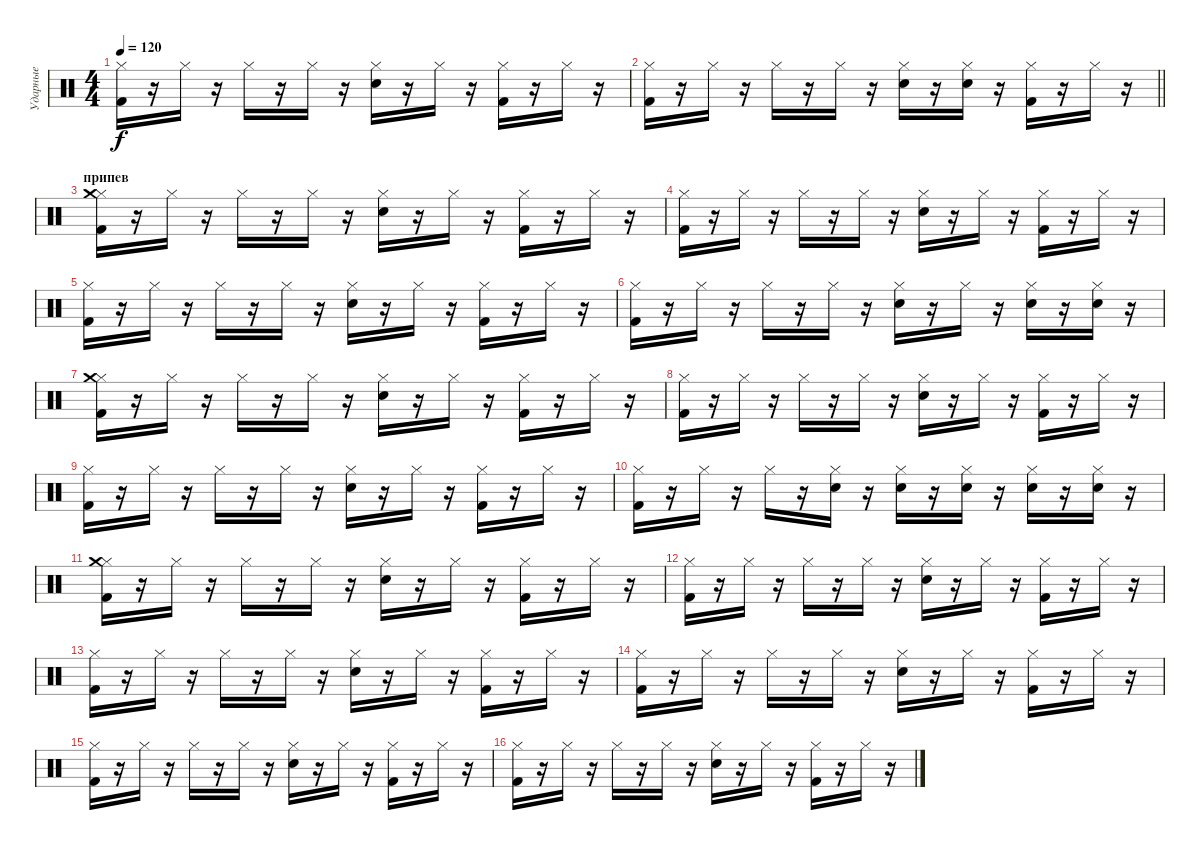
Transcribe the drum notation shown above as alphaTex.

\track ("Ударные" "Ударные") {instrument percussion}
\staff {score}
\articulation defaults
\ts (4 4)
\tempo 120
\clef neutral
\ks c
("Hi-Hat (closed)" "Kick (hit) 2").16{dy f} r.16 "Hi-Hat (closed)".16 r.16 "Hi-Hat (closed)".16 r.16 "Hi-Hat (closed)".16 r.16 ("Hi-Hat (closed)" "Snare (hit) 2").16 r.16 "Hi-Hat (closed)".16 r.16 ("Hi-Hat (closed)" "Kick (hit) 2").16 r.16 "Hi-Hat (closed)".16 r.16 |
\barLineRight lightlight
("Hi-Hat (closed)" "Kick (hit) 2").16 r.16 "Hi-Hat (closed)".16 r.16 "Hi-Hat (closed)".16 r.16 "Hi-Hat (closed)".16 r.16 ("Hi-Hat (closed)" "Snare (hit) 2").16 r.16 ("Hi-Hat (closed)" "Snare (hit) 2").16 r.16 ("Hi-Hat (closed)" "Kick (hit) 2").16 r.16 "Hi-Hat (closed)".16 r.16 |
\section ("" "припев")
("Hi-Hat (closed)" "Kick (hit) 2" "Crash medium (hit)").16 r.16 "Hi-Hat (closed)".16 r.16 "Hi-Hat (closed)".16 r.16 "Hi-Hat (closed)".16 r.16 ("Hi-Hat (closed)" "Snare (hit) 2").16 r.16 "Hi-Hat (closed)".16 r.16 ("Hi-Hat (closed)" "Kick (hit) 2").16 r.16 "Hi-Hat (closed)".16 r.16 |
("Hi-Hat (closed)" "Kick (hit) 2").16 r.16 "Hi-Hat (closed)".16 r.16 "Hi-Hat (closed)".16 r.16 "Hi-Hat (closed)".16 r.16 ("Hi-Hat (closed)" "Snare (hit) 2").16 r.16 "Hi-Hat (closed)".16 r.16 ("Hi-Hat (closed)" "Kick (hit) 2").16 r.16 "Hi-Hat (closed)".16 r.16 |
("Hi-Hat (closed)" "Kick (hit) 2").16 r.16 "Hi-Hat (closed)".16 r.16 "Hi-Hat (closed)".16 r.16 "Hi-Hat (closed)".16 r.16 ("Hi-Hat (closed)" "Snare (hit) 2").16 r.16 "Hi-Hat (closed)".16 r.16 ("Hi-Hat (closed)" "Kick (hit) 2").16 r.16 "Hi-Hat (closed)".16 r.16 |
("Hi-Hat (closed)" "Kick (hit) 2").16 r.16 "Hi-Hat (closed)".16 r.16 "Hi-Hat (closed)".16 r.16 "Hi-Hat (closed)".16 r.16 ("Hi-Hat (closed)" "Snare (hit) 2").16 r.16 "Hi-Hat (closed)".16 r.16 ("Hi-Hat (closed)" "Snare (hit) 2").16 r.16 ("Hi-Hat (closed)" "Snare (hit) 2").16 r.16 |
("Hi-Hat (closed)" "Kick (hit) 2" "Crash medium (hit)").16 r.16 "Hi-Hat (closed)".16 r.16 "Hi-Hat (closed)".16 r.16 "Hi-Hat (closed)".16 r.16 ("Hi-Hat (closed)" "Snare (hit) 2").16 r.16 "Hi-Hat (closed)".16 r.16 ("Hi-Hat (closed)" "Kick (hit) 2").16 r.16 "Hi-Hat (closed)".16 r.16 |
("Hi-Hat (closed)" "Kick (hit) 2").16 r.16 "Hi-Hat (closed)".16 r.16 "Hi-Hat (closed)".16 r.16 "Hi-Hat (closed)".16 r.16 ("Hi-Hat (closed)" "Snare (hit) 2").16 r.16 "Hi-Hat (closed)".16 r.16 ("Hi-Hat (closed)" "Kick (hit) 2").16 r.16 "Hi-Hat (closed)".16 r.16 |
("Hi-Hat (closed)" "Kick (hit) 2").16 r.16 "Hi-Hat (closed)".16 r.16 "Hi-Hat (closed)".16 r.16 "Hi-Hat (closed)".16 r.16 ("Hi-Hat (closed)" "Snare (hit) 2").16 r.16 "Hi-Hat (closed)".16 r.16 ("Hi-Hat (closed)" "Kick (hit) 2").16 r.16 "Hi-Hat (closed)".16 r.16 |
("Hi-Hat (closed)" "Kick (hit) 2").16 r.16 "Hi-Hat (closed)".16 r.16 "Hi-Hat (closed)".16 r.16 ("Hi-Hat (closed)" "Snare (hit) 2").16 r.16 ("Hi-Hat (closed)" "Snare (hit) 2").16 r.16 ("Hi-Hat (closed)" "Snare (hit) 2").16 r.16 ("Hi-Hat (closed)" "Snare (hit) 2").16 r.16 ("Hi-Hat (closed)" "Snare (hit) 2").16 r.16 |
("Hi-Hat (closed)" "Kick (hit) 2" "Crash medium (hit)").16 r.16 "Hi-Hat (closed)".16 r.16 "Hi-Hat (closed)".16 r.16 "Hi-Hat (closed)".16 r.16 ("Hi-Hat (closed)" "Snare (hit) 2").16 r.16 "Hi-Hat (closed)".16 r.16 ("Hi-Hat (closed)" "Kick (hit) 2").16 r.16 "Hi-Hat (closed)".16 r.16 |
("Hi-Hat (closed)" "Kick (hit) 2").16 r.16 "Hi-Hat (closed)".16 r.16 "Hi-Hat (closed)".16 r.16 "Hi-Hat (closed)".16 r.16 ("Hi-Hat (closed)" "Snare (hit) 2").16 r.16 "Hi-Hat (closed)".16 r.16 ("Hi-Hat (closed)" "Kick (hit) 2").16 r.16 "Hi-Hat (closed)".16 r.16 |
("Hi-Hat (closed)" "Kick (hit) 2").16 r.16 "Hi-Hat (closed)".16 r.16 "Hi-Hat (closed)".16 r.16 "Hi-Hat (closed)".16 r.16 ("Hi-Hat (closed)" "Snare (hit) 2").16 r.16 "Hi-Hat (closed)".16 r.16 ("Hi-Hat (closed)" "Kick (hit) 2").16 r.16 "Hi-Hat (closed)".16 r.16 |
("Hi-Hat (closed)" "Kick (hit) 2").16 r.16 "Hi-Hat (closed)".16 r.16 "Hi-Hat (closed)".16 r.16 "Hi-Hat (closed)".16 r.16 ("Hi-Hat (closed)" "Snare (hit) 2").16 r.16 "Hi-Hat (closed)".16 r.16 ("Hi-Hat (closed)" "Kick (hit) 2").16 r.16 "Hi-Hat (closed)".16 r.16 |
("Hi-Hat (closed)" "Kick (hit) 2").16 r.16 "Hi-Hat (closed)".16 r.16 "Hi-Hat (closed)".16 r.16 "Hi-Hat (closed)".16 r.16 ("Hi-Hat (closed)" "Snare (hit) 2").16 r.16 "Hi-Hat (closed)".16 r.16 ("Hi-Hat (closed)" "Kick (hit) 2").16 r.16 "Hi-Hat (closed)".16 r.16 |
("Hi-Hat (closed)" "Kick (hit) 2").16 r.16 "Hi-Hat (closed)".16 r.16 "Hi-Hat (closed)".16 r.16 "Hi-Hat (closed)".16 r.16 ("Hi-Hat (closed)" "Snare (hit) 2").16 r.16 "Hi-Hat (closed)".16 r.16 ("Hi-Hat (closed)" "Kick (hit) 2").16 r.16 "Hi-Hat (closed)".16 r.16
